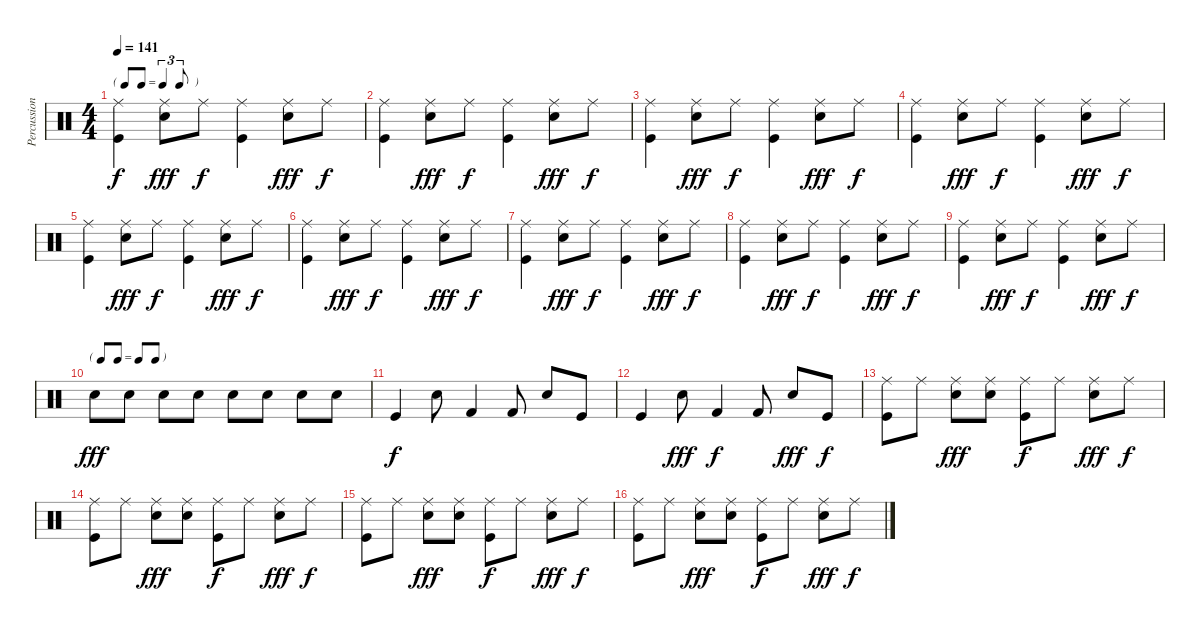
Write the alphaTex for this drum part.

\track ("Percussions 2" "Percussion") {mute instrument percussion}
\staff {score}
\articulation defaults
\ts (4 4)
\tf triplet8th
\tempo 141
\clef neutral
\ks c
("Kick (hit)" "Ride (middle)").4{dy f} ("Snare (hit) 2" "Ride (middle)").8{dy fff} "Ride (middle)".8{dy f} ("Kick (hit)" "Ride (middle)").4 ("Snare (hit) 2" "Ride (middle)").8{dy fff} "Ride (middle)".8{dy f} |
("Kick (hit)" "Ride (middle)").4 ("Snare (hit) 2" "Ride (middle)").8{dy fff} "Ride (middle)".8{dy f} ("Kick (hit)" "Ride (middle)").4 ("Snare (hit) 2" "Ride (middle)").8{dy fff} "Ride (middle)".8{dy f} |
("Kick (hit)" "Ride (middle)").4 ("Snare (hit) 2" "Ride (middle)").8{dy fff} "Ride (middle)".8{dy f} ("Kick (hit)" "Ride (middle)").4 ("Snare (hit) 2" "Ride (middle)").8{dy fff} "Ride (middle)".8{dy f} |
("Kick (hit)" "Ride (middle)").4 ("Snare (hit) 2" "Ride (middle)").8{dy fff} "Ride (middle)".8{dy f} ("Kick (hit)" "Ride (middle)").4 ("Snare (hit) 2" "Ride (middle)").8{dy fff} "Ride (middle)".8{dy f} |
("Kick (hit)" "Ride (middle)").4 ("Snare (hit) 2" "Ride (middle)").8{dy fff} "Ride (middle)".8{dy f} ("Kick (hit)" "Ride (middle)").4 ("Snare (hit) 2" "Ride (middle)").8{dy fff} "Ride (middle)".8{dy f} |
("Kick (hit)" "Ride (middle)").4 ("Snare (hit) 2" "Ride (middle)").8{dy fff} "Ride (middle)".8{dy f} ("Kick (hit)" "Ride (middle)").4 ("Snare (hit) 2" "Ride (middle)").8{dy fff} "Ride (middle)".8{dy f} |
("Kick (hit)" "Ride (middle)").4 ("Snare (hit) 2" "Ride (middle)").8{dy fff} "Ride (middle)".8{dy f} ("Kick (hit)" "Ride (middle)").4 ("Snare (hit) 2" "Ride (middle)").8{dy fff} "Ride (middle)".8{dy f} |
("Kick (hit)" "Ride (middle)").4 ("Snare (hit) 2" "Ride (middle)").8{dy fff} "Ride (middle)".8{dy f} ("Kick (hit)" "Ride (middle)").4 ("Snare (hit) 2" "Ride (middle)").8{dy fff} "Ride (middle)".8{dy f} |
("Kick (hit)" "Ride (middle)").4 ("Snare (hit) 2" "Ride (middle)").8{dy fff} "Ride (middle)".8{dy f} ("Kick (hit)" "Ride (middle)").4 ("Snare (hit) 2" "Ride (middle)").8{dy fff} "Ride (middle)".8{dy f} |
\tf none "Snare (hit) 2".8{dy fff} "Snare (hit) 2".8 "Snare (hit) 2".8 "Snare (hit) 2".8 "Snare (hit) 2".8 "Snare (hit) 2".8 "Snare (hit) 2".8 "Snare (hit) 2".8
|
"Kick (hit)".4{dy f} "Snare (hit) 2".8 "Kick (hit) 2".4 "Kick (hit) 2".8 "Snare (hit) 2".8 "Kick (hit)".8 |
"Kick (hit)".4 "Snare (hit) 2".8{dy fff} "Kick (hit) 2".4{dy f} "Kick (hit) 2".8 "Snare (hit) 2".8{dy fff} "Kick (hit)".8{dy f} |
("Kick (hit)" "Ride (middle)").8 "Ride (middle)".8 ("Snare (hit) 2" "Ride (middle)").8{dy fff} ("Snare (hit) 2" "Ride (middle)").8 ("Kick (hit)" "Ride (middle)").8{dy f} "Ride (middle)".8 ("Snare (hit) 2" "Ride (middle)").8{dy fff} "Ride (middle)".8{dy f} |
("Kick (hit)" "Ride (middle)").8 "Ride (middle)".8 ("Snare (hit) 2" "Ride (middle)").8{dy fff} ("Snare (hit) 2" "Ride (middle)").8 ("Kick (hit)" "Ride (middle)").8{dy f} "Ride (middle)".8 ("Snare (hit) 2" "Ride (middle)").8{dy fff} "Ride (middle)".8{dy f} |
("Kick (hit)" "Ride (middle)").8 "Ride (middle)".8 ("Snare (hit) 2" "Ride (middle)").8{dy fff} ("Snare (hit) 2" "Ride (middle)").8 ("Kick (hit)" "Ride (middle)").8{dy f} "Ride (middle)".8 ("Snare (hit) 2" "Ride (middle)").8{dy fff} "Ride (middle)".8{dy f} |
("Kick (hit)" "Ride (middle)").8 "Ride (middle)".8 ("Snare (hit) 2" "Ride (middle)").8{dy fff} ("Snare (hit) 2" "Ride (middle)").8 ("Kick (hit)" "Ride (middle)").8{dy f} "Ride (middle)".8 ("Snare (hit) 2" "Ride (middle)").8{dy fff} "Ride (middle)".8{dy f}
